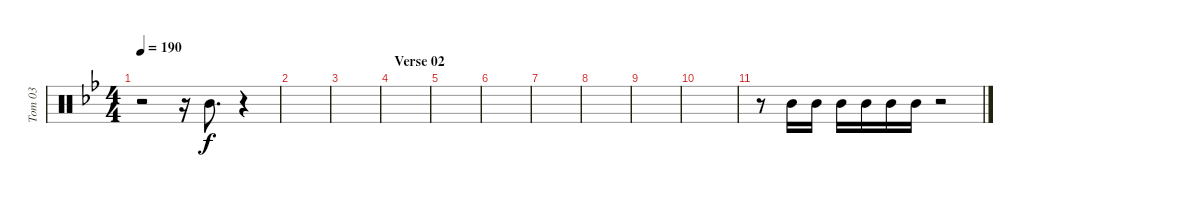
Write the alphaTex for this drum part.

\track ("Tom 03" "Tom 03") {instrument percussion}
\staff {score}
\articulation defaults
\ts (4 4)
\tempo 190
\clef neutral
\ks bb
r.2{dy f} r.16 "Mid Tom (hit)".8{d} r.4 |
|
|
\section ("" "Verse 02")
|
|
|
|
|
|
|
r.8 "Mid Tom (hit)".16 "Mid Tom (hit)".16 "Mid Tom (hit)".16 "Mid Tom (hit)".16 "Mid Tom (hit)".16 "Mid Tom (hit)".16 r.2
